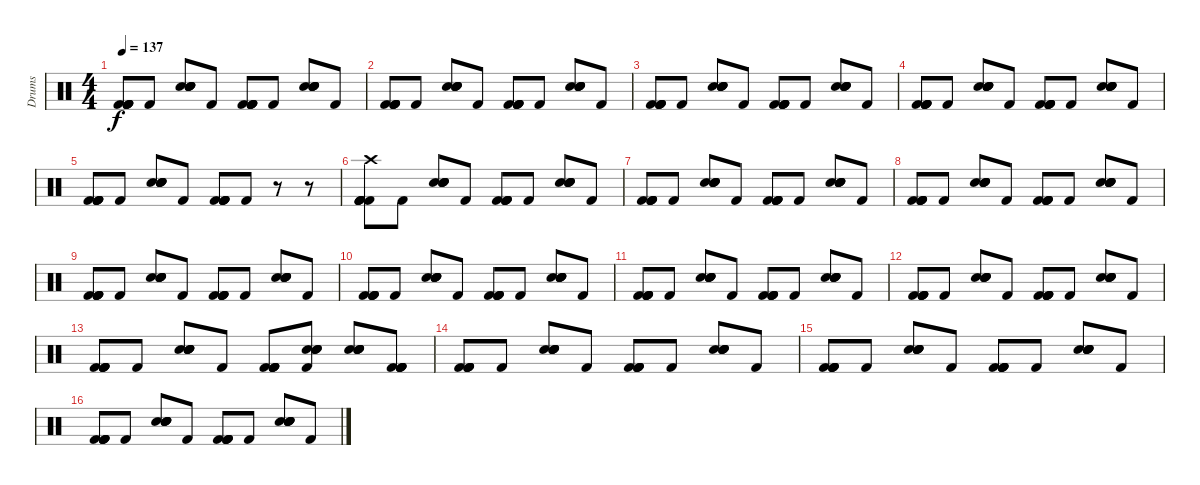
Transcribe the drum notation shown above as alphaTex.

\track ("Drums" "Drums") {instrument percussion}
\staff {score}
\articulation defaults
\ts (4 4)
\tempo 137
\clef neutral
\ks c
("Kick (hit) 2" "Kick (hit) 2" "Kick (hit) 2" "Kick (hit) 2" "Kick (hit) 2").8{dy f} "Kick (hit) 2".8 ("Snare (hit) 2" "Snare (hit) 2" "Snare (hit) 2" "Snare (hit) 2" "Snare (hit) 2").8 "Kick (hit) 2".8 ("Kick (hit) 2" "Kick (hit) 2" "Kick (hit) 2" "Kick (hit) 2" "Kick (hit) 2").8 "Kick (hit) 2".8 ("Snare (hit) 2" "Snare (hit) 2" "Snare (hit) 2" "Snare (hit) 2" "Snare (hit) 2").8 "Kick (hit) 2".8 |
("Kick (hit) 2" "Kick (hit) 2" "Kick (hit) 2" "Kick (hit) 2" "Kick (hit) 2").8 "Kick (hit) 2".8 ("Snare (hit) 2" "Snare (hit) 2" "Snare (hit) 2" "Snare (hit) 2" "Snare (hit) 2").8 "Kick (hit) 2".8 ("Kick (hit) 2" "Kick (hit) 2" "Kick (hit) 2" "Kick (hit) 2" "Kick (hit) 2").8 "Kick (hit) 2".8 ("Snare (hit) 2" "Snare (hit) 2" "Snare (hit) 2" "Snare (hit) 2" "Snare (hit) 2").8 "Kick (hit) 2".8 |
("Kick (hit) 2" "Kick (hit) 2" "Kick (hit) 2" "Kick (hit) 2" "Kick (hit) 2").8 "Kick (hit) 2".8 ("Snare (hit) 2" "Snare (hit) 2" "Snare (hit) 2" "Snare (hit) 2" "Snare (hit) 2").8 "Kick (hit) 2".8 ("Kick (hit) 2" "Kick (hit) 2" "Kick (hit) 2" "Kick (hit) 2" "Kick (hit) 2").8 "Kick (hit) 2".8 ("Snare (hit) 2" "Snare (hit) 2" "Snare (hit) 2" "Snare (hit) 2" "Snare (hit) 2").8 "Kick (hit) 2".8 |
("Kick (hit) 2" "Kick (hit) 2" "Kick (hit) 2" "Kick (hit) 2" "Kick (hit) 2").8 "Kick (hit) 2".8 ("Snare (hit) 2" "Snare (hit) 2" "Snare (hit) 2" "Snare (hit) 2" "Snare (hit) 2").8 "Kick (hit) 2".8 ("Kick (hit) 2" "Kick (hit) 2" "Kick (hit) 2" "Kick (hit) 2" "Kick (hit) 2").8 "Kick (hit) 2".8 ("Snare (hit) 2" "Snare (hit) 2" "Snare (hit) 2" "Snare (hit) 2" "Snare (hit) 2").8 "Kick (hit) 2".8 |
("Kick (hit) 2" "Kick (hit) 2" "Kick (hit) 2" "Kick (hit) 2" "Kick (hit) 2").8 "Kick (hit) 2".8 ("Snare (hit) 2" "Snare (hit) 2" "Snare (hit) 2" "Snare (hit) 2" "Snare (hit) 2").8 "Kick (hit) 2".8 ("Kick (hit) 2" "Kick (hit) 2" "Kick (hit) 2" "Kick (hit) 2" "Kick (hit) 2").8 "Kick (hit) 2".8 r.8 r.8 |
("Crash high (hit)" "Kick (hit) 2" "Kick (hit) 2" "Kick (hit) 2" "Kick (hit) 2" "Kick (hit) 2").8 "Kick (hit) 2".8 ("Snare (hit) 2" "Snare (hit) 2" "Snare (hit) 2" "Snare (hit) 2" "Snare (hit) 2").8 "Kick (hit) 2".8 ("Kick (hit) 2" "Kick (hit) 2" "Kick (hit) 2" "Kick (hit) 2" "Kick (hit) 2").8 "Kick (hit) 2".8 ("Snare (hit) 2" "Snare (hit) 2" "Snare (hit) 2" "Snare (hit) 2" "Snare (hit) 2").8 "Kick (hit) 2".8 |
("Kick (hit) 2" "Kick (hit) 2" "Kick (hit) 2" "Kick (hit) 2" "Kick (hit) 2").8 "Kick (hit) 2".8 ("Snare (hit) 2" "Snare (hit) 2" "Snare (hit) 2" "Snare (hit) 2" "Snare (hit) 2").8 "Kick (hit) 2".8 ("Kick (hit) 2" "Kick (hit) 2" "Kick (hit) 2" "Kick (hit) 2" "Kick (hit) 2").8 "Kick (hit) 2".8 ("Snare (hit) 2" "Snare (hit) 2" "Snare (hit) 2" "Snare (hit) 2" "Snare (hit) 2").8 "Kick (hit) 2".8 |
("Kick (hit) 2" "Kick (hit) 2" "Kick (hit) 2" "Kick (hit) 2" "Kick (hit) 2").8 "Kick (hit) 2".8 ("Snare (hit) 2" "Snare (hit) 2" "Snare (hit) 2" "Snare (hit) 2" "Snare (hit) 2").8 "Kick (hit) 2".8 ("Kick (hit) 2" "Kick (hit) 2" "Kick (hit) 2" "Kick (hit) 2" "Kick (hit) 2").8 "Kick (hit) 2".8 ("Snare (hit) 2" "Snare (hit) 2" "Snare (hit) 2" "Snare (hit) 2" "Snare (hit) 2").8 "Kick (hit) 2".8 |
("Kick (hit) 2" "Kick (hit) 2" "Kick (hit) 2" "Kick (hit) 2" "Kick (hit) 2").8 "Kick (hit) 2".8 ("Snare (hit) 2" "Snare (hit) 2" "Snare (hit) 2" "Snare (hit) 2" "Snare (hit) 2").8 "Kick (hit) 2".8 ("Kick (hit) 2" "Kick (hit) 2" "Kick (hit) 2" "Kick (hit) 2" "Kick (hit) 2").8 "Kick (hit) 2".8 ("Snare (hit) 2" "Snare (hit) 2" "Snare (hit) 2" "Snare (hit) 2" "Snare (hit) 2").8 "Kick (hit) 2".8 |
("Kick (hit) 2" "Kick (hit) 2" "Kick (hit) 2" "Kick (hit) 2" "Kick (hit) 2").8 "Kick (hit) 2".8 ("Snare (hit) 2" "Snare (hit) 2" "Snare (hit) 2" "Snare (hit) 2" "Snare (hit) 2").8 "Kick (hit) 2".8 ("Kick (hit) 2" "Kick (hit) 2" "Kick (hit) 2" "Kick (hit) 2" "Kick (hit) 2").8 "Kick (hit) 2".8 ("Snare (hit) 2" "Snare (hit) 2" "Snare (hit) 2" "Snare (hit) 2" "Snare (hit) 2").8 "Kick (hit) 2".8 |
("Kick (hit) 2" "Kick (hit) 2" "Kick (hit) 2" "Kick (hit) 2" "Kick (hit) 2").8 "Kick (hit) 2".8 ("Snare (hit) 2" "Snare (hit) 2" "Snare (hit) 2" "Snare (hit) 2" "Snare (hit) 2").8 "Kick (hit) 2".8 ("Kick (hit) 2" "Kick (hit) 2" "Kick (hit) 2" "Kick (hit) 2" "Kick (hit) 2").8 "Kick (hit) 2".8 ("Snare (hit) 2" "Snare (hit) 2" "Snare (hit) 2" "Snare (hit) 2" "Snare (hit) 2").8 "Kick (hit) 2".8 |
("Kick (hit) 2" "Kick (hit) 2" "Kick (hit) 2" "Kick (hit) 2" "Kick (hit) 2").8 "Kick (hit) 2".8 ("Snare (hit) 2" "Snare (hit) 2" "Snare (hit) 2" "Snare (hit) 2" "Snare (hit) 2").8 "Kick (hit) 2".8 ("Kick (hit) 2" "Kick (hit) 2" "Kick (hit) 2" "Kick (hit) 2" "Kick (hit) 2").8 "Kick (hit) 2".8 ("Snare (hit) 2" "Snare (hit) 2" "Snare (hit) 2" "Snare (hit) 2" "Snare (hit) 2").8 "Kick (hit) 2".8 |
("Kick (hit) 2" "Kick (hit) 2" "Kick (hit) 2" "Kick (hit) 2" "Kick (hit) 2").8 "Kick (hit) 2".8 ("Snare (hit) 2" "Snare (hit) 2" "Snare (hit) 2" "Snare (hit) 2" "Snare (hit) 2").8 "Kick (hit) 2".8 ("Kick (hit) 2" "Kick (hit) 2" "Kick (hit) 2" "Kick (hit) 2" "Kick (hit) 2").8 ("Kick (hit) 2" "Snare (hit) 2" "Snare (hit) 2" "Snare (hit) 2" "Snare (hit) 2").8 ("Snare (hit) 2" "Snare (hit) 2" "Snare (hit) 2" "Snare (hit) 2" "Snare (hit) 2").8 ("Kick (hit) 2" "Kick (hit) 2" "Kick (hit) 2" "Kick (hit) 2" "Kick (hit) 2").8 |
("Kick (hit) 2" "Kick (hit) 2" "Kick (hit) 2" "Kick (hit) 2" "Kick (hit) 2").8 "Kick (hit) 2".8 ("Snare (hit) 2" "Snare (hit) 2" "Snare (hit) 2" "Snare (hit) 2" "Snare (hit) 2").8 "Kick (hit) 2".8 ("Kick (hit) 2" "Kick (hit) 2" "Kick (hit) 2" "Kick (hit) 2" "Kick (hit) 2").8 "Kick (hit) 2".8 ("Snare (hit) 2" "Snare (hit) 2" "Snare (hit) 2" "Snare (hit) 2" "Snare (hit) 2").8 "Kick (hit) 2".8 |
("Kick (hit) 2" "Kick (hit) 2" "Kick (hit) 2" "Kick (hit) 2" "Kick (hit) 2").8 "Kick (hit) 2".8 ("Snare (hit) 2" "Snare (hit) 2" "Snare (hit) 2" "Snare (hit) 2" "Snare (hit) 2").8 "Kick (hit) 2".8 ("Kick (hit) 2" "Kick (hit) 2" "Kick (hit) 2" "Kick (hit) 2" "Kick (hit) 2").8 "Kick (hit) 2".8 ("Snare (hit) 2" "Snare (hit) 2" "Snare (hit) 2" "Snare (hit) 2" "Snare (hit) 2").8 "Kick (hit) 2".8 |
("Kick (hit) 2" "Kick (hit) 2" "Kick (hit) 2" "Kick (hit) 2" "Kick (hit) 2").8 "Kick (hit) 2".8 ("Snare (hit) 2" "Snare (hit) 2" "Snare (hit) 2" "Snare (hit) 2" "Snare (hit) 2").8 "Kick (hit) 2".8 ("Kick (hit) 2" "Kick (hit) 2" "Kick (hit) 2" "Kick (hit) 2" "Kick (hit) 2").8 "Kick (hit) 2".8 ("Snare (hit) 2" "Snare (hit) 2" "Snare (hit) 2" "Snare (hit) 2" "Snare (hit) 2").8 "Kick (hit) 2".8
